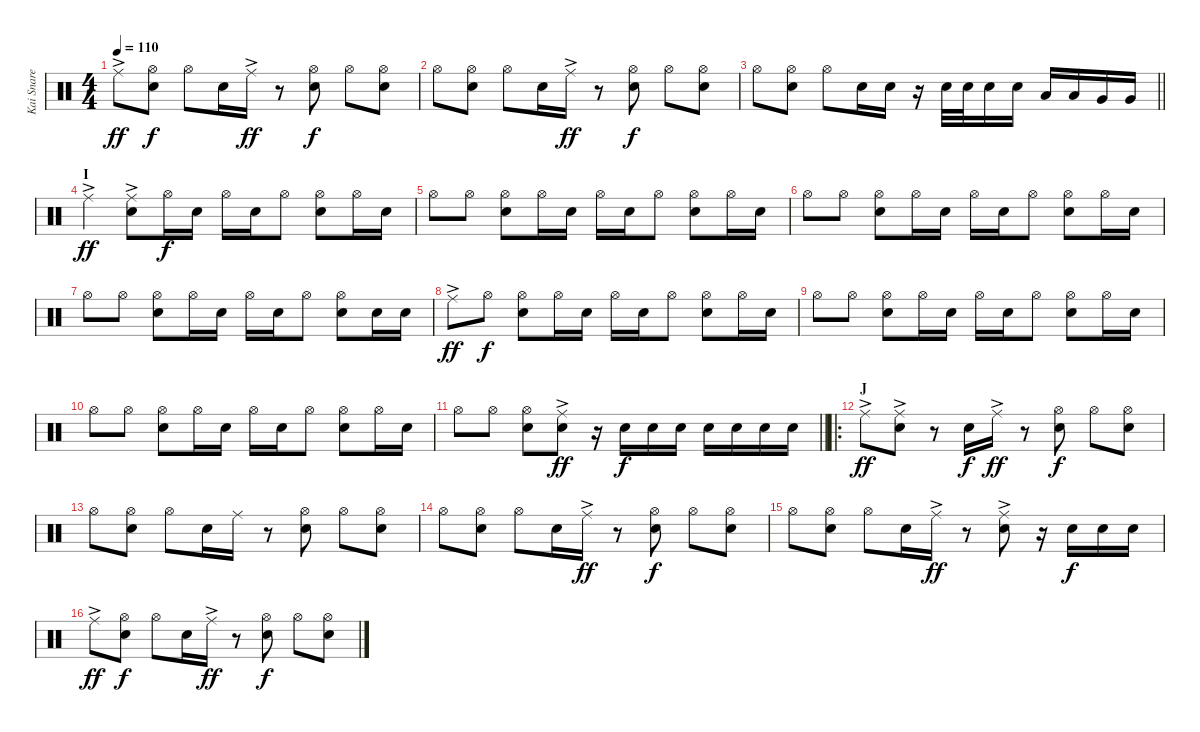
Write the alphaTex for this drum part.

\track ("Kai Snare" "Kai Snare") {instrument percussion}
\staff {score}
\articulation defaults
\ts (4 4)
\tempo 110
\clef neutral
\ks c "Ride (middle)"{ac}.8{dy ff}
("Hi-Hat (open)" "Snare (hit) 2").8{dy f} "Hi-Hat (open)".8 "Snare (hit) 2".16 "Ride (middle)"{ac}.16{dy ff} r.8 ("Hi-Hat (open)" "Snare (hit) 2").8{dy f} "Hi-Hat (open)".8 ("Hi-Hat (open)" "Snare (hit) 2").8 |
"Hi-Hat (open)".8 ("Hi-Hat (open)" "Snare (hit) 2").8 "Hi-Hat (open)".8 "Snare (hit) 2".16 "Ride (middle)"{ac}.16{dy ff} r.8 ("Hi-Hat (open)" "Snare (hit) 2").8{dy f} "Hi-Hat (open)".8 ("Hi-Hat (open)" "Snare (hit) 2").8 |
\barLineRight lightlight "Hi-Hat (open)".8
("Hi-Hat (open)" "Snare (hit) 2").8 "Hi-Hat (open)".8 "Snare (hit) 2".16 "Snare (hit) 2".16 r.16 "Snare (hit) 2".32 "Snare (hit) 2".32 "Snare (hit) 2".16 "Snare (hit) 2".16 "Low Tom (hit)".16 "Low Tom (hit)".16 "Very Low Tom (hit)".16 "Very Low Tom (hit)".16 |
\section ("" "I")
"Ride (middle)"{ac}.4{dy ff} ("Ride (middle)"{ac} "Snare (hit) 2").8 "Hi-Hat (open)".16{dy f} "Snare (hit) 2".16 "Hi-Hat (open)".16 "Snare (hit) 2".16 "Hi-Hat (open)".8 ("Hi-Hat (open)" "Snare (hit) 2").8 "Hi-Hat (open)".16 "Snare (hit) 2".16 |
"Hi-Hat (open)".8 "Hi-Hat (open)".8 ("Hi-Hat (open)" "Snare (hit) 2").8 "Hi-Hat (open)".16 "Snare (hit) 2".16 "Hi-Hat (open)".16 "Snare (hit) 2".16 "Hi-Hat (open)".8 ("Hi-Hat (open)" "Snare (hit) 2").8 "Hi-Hat (open)".16 "Snare (hit) 2".16 |
"Hi-Hat (open)".8 "Hi-Hat (open)".8 ("Hi-Hat (open)" "Snare (hit) 2").8 "Hi-Hat (open)".16 "Snare (hit) 2".16 "Hi-Hat (open)".16 "Snare (hit) 2".16 "Hi-Hat (open)".8 ("Hi-Hat (open)" "Snare (hit) 2").8 "Hi-Hat (open)".16 "Snare (hit) 2".16 |
"Hi-Hat (open)".8 "Hi-Hat (open)".8 ("Hi-Hat (open)" "Snare (hit) 2").8 "Hi-Hat (open)".16 "Snare (hit) 2".16 "Hi-Hat (open)".16 "Snare (hit) 2".16 "Hi-Hat (open)".8 ("Hi-Hat (open)" "Snare (hit) 2").8 "Snare (hit) 2".16 "Snare (hit) 2".16 |
"Ride (middle)"{ac}.8{dy ff} "Hi-Hat (open)".8{dy f} ("Hi-Hat (open)" "Snare (hit) 2").8 "Hi-Hat (open)".16 "Snare (hit) 2".16 "Hi-Hat (open)".16 "Snare (hit) 2".16 "Hi-Hat (open)".8 ("Hi-Hat (open)" "Snare (hit) 2").8 "Hi-Hat (open)".16 "Snare (hit) 2".16 |
"Hi-Hat (open)".8 "Hi-Hat (open)".8 ("Hi-Hat (open)" "Snare (hit) 2").8 "Hi-Hat (open)".16 "Snare (hit) 2".16 "Hi-Hat (open)".16 "Snare (hit) 2".16 "Hi-Hat (open)".8 ("Hi-Hat (open)" "Snare (hit) 2").8 "Hi-Hat (open)".16 "Snare (hit) 2".16 |
"Hi-Hat (open)".8 "Hi-Hat (open)".8 ("Hi-Hat (open)" "Snare (hit) 2").8 "Hi-Hat (open)".16 "Snare (hit) 2".16 "Hi-Hat (open)".16 "Snare (hit) 2".16 "Hi-Hat (open)".8 ("Hi-Hat (open)" "Snare (hit) 2").8 "Hi-Hat (open)".16 "Snare (hit) 2".16 |
\barLineRight lightlight "Hi-Hat (open)".8 "Hi-Hat (open)".8
("Hi-Hat (open)" "Snare (hit) 2").8 ("Ride (middle)"{ac} "Snare (hit) 2").8{dy ff} r.16 "Snare (hit) 2".16{dy f} "Snare (hit) 2".16 "Snare (hit) 2".16 "Snare (hit) 2".16 "Snare (hit) 2".16 "Snare (hit) 2".16 "Snare (hit) 2".16 |
\ro
\section ("" "J")
"Ride (middle)"{ac}.8{dy ff} ("Ride (middle)"{ac} "Snare (hit) 2").8 r.8 "Snare (hit) 2".16{dy f} "Ride (middle)"{ac}.16{dy ff} r.8 ("Hi-Hat (open)" "Snare (hit) 2").8{dy f} "Hi-Hat (open)".8 ("Hi-Hat (open)" "Snare (hit) 2").8 |
"Hi-Hat (open)".8 ("Hi-Hat (open)" "Snare (hit) 2").8 "Hi-Hat (open)".8 "Snare (hit) 2".16 "Ride (middle)".16 r.8 ("Hi-Hat (open)" "Snare (hit) 2").8 "Hi-Hat (open)".8 ("Hi-Hat (open)" "Snare (hit) 2").8 |
"Hi-Hat (open)".8 ("Hi-Hat (open)" "Snare (hit) 2").8 "Hi-Hat (open)".8 "Snare (hit) 2".16 "Ride (middle)"{ac}.16{dy ff} r.8 ("Hi-Hat (open)" "Snare (hit) 2").8{dy f} "Hi-Hat (open)".8 ("Hi-Hat (open)" "Snare (hit) 2").8 |
"Hi-Hat (open)".8 ("Hi-Hat (open)" "Snare (hit) 2").8 "Hi-Hat (open)".8 "Snare (hit) 2".16 "Ride (middle)"{ac}.16{dy ff} r.8 ("Ride (middle)"{ac} "Snare (hit) 2").8 r.16 "Snare (hit) 2".16{dy f} "Snare (hit) 2".16 "Snare (hit) 2".16 |
"Ride (middle)"{ac}.8{dy ff} ("Hi-Hat (open)" "Snare (hit) 2").8{dy f} "Hi-Hat (open)".8 "Snare (hit) 2".16 "Ride (middle)"{ac}.16{dy ff} r.8 ("Hi-Hat (open)" "Snare (hit) 2").8{dy f} "Hi-Hat (open)".8 ("Hi-Hat (open)" "Snare (hit) 2").8
